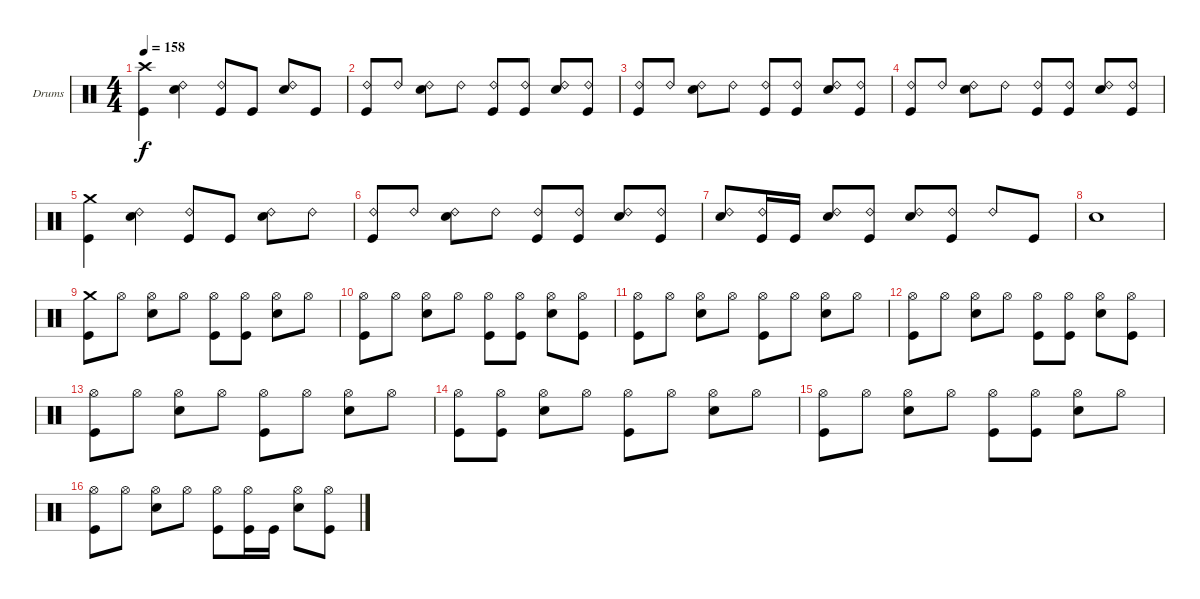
\bracketExtendMode groupsimilarinstruments
\firstSystemTrackNameOrientation horizontal
\otherSystemsTrackNameOrientation horizontal
\track ("Drumkit" "Drums") {instrument percussion}
\staff {score}
\articulation defaults
\ts (4 4)
\tempo 158
\clef neutral
\ks c
("Crash high (hit)" "Kick (hit)").4{dy f} ("Ride (bell) 2" "Snare (hit) 2").4 ("Ride (bell) 2" "Kick (hit)").8 "Kick (hit)".8 ("Ride (bell) 2" "Snare (hit) 2").8 "Kick (hit)".8 |
("Ride (bell) 2" "Kick (hit)").8 "Ride (bell) 2".8 ("Ride (bell) 2" "Snare (hit) 2").8 "Ride (bell) 2".8 ("Ride (bell) 2" "Kick (hit)").8 ("Ride (bell) 2" "Kick (hit)").8 ("Ride (bell) 2" "Snare (hit) 2").8 ("Ride (bell) 2" "Kick (hit)").8 |
("Ride (bell) 2" "Kick (hit)").8 "Ride (bell) 2".8 ("Ride (bell) 2" "Snare (hit) 2").8 "Ride (bell) 2".8 ("Ride (bell) 2" "Kick (hit)").8 ("Ride (bell) 2" "Kick (hit)").8 ("Ride (bell) 2" "Snare (hit) 2").8 ("Ride (bell) 2" "Kick (hit)").8 |
("Ride (bell) 2" "Kick (hit)").8 "Ride (bell) 2".8 ("Ride (bell) 2" "Snare (hit) 2").8 "Ride (bell) 2".8 ("Ride (bell) 2" "Kick (hit)").8 ("Ride (bell) 2" "Kick (hit)").8 ("Ride (bell) 2" "Snare (hit) 2").8 ("Ride (bell) 2" "Kick (hit)").8 |
("Crash medium (hit)" "Kick (hit)").4 ("Ride (bell) 2" "Snare (hit) 2").4 ("Ride (bell) 2" "Kick (hit)").8 "Kick (hit)".8 ("Ride (bell) 2" "Snare (hit) 2").8 "Ride (bell) 2".8 |
("Ride (bell) 2" "Kick (hit)").8 "Ride (bell) 2".8 ("Ride (bell) 2" "Snare (hit) 2").8 "Ride (bell) 2".8 ("Ride (bell) 2" "Kick (hit)").8 ("Ride (bell) 2" "Kick (hit)").8 ("Ride (bell) 2" "Snare (hit) 2").8 ("Ride (bell) 2" "Kick (hit)").8 |
("Ride (bell) 2" "Snare (hit) 2").8 ("Ride (bell) 2" "Kick (hit)").16 "Kick (hit)".16 ("Ride (bell) 2" "Snare (hit) 2").8 ("Ride (bell) 2" "Kick (hit)").8 ("Ride (bell) 2" "Snare (hit) 2").8 ("Ride (bell) 2" "Kick (hit)").8 "Ride (bell) 2".8 "Kick (hit)".8 |
"Snare (hit) 2".1 |
("Crash medium (hit)" "Kick (hit)").8 "Hi-Hat (open)".8 ("Hi-Hat (open)" "Snare (hit) 2").8 "Hi-Hat (open)".8 ("Hi-Hat (open)" "Kick (hit)").8 ("Hi-Hat (open)" "Kick (hit)").8 ("Hi-Hat (open)" "Snare (hit) 2").8 "Hi-Hat (open)".8 |
("Hi-Hat (open)" "Kick (hit)").8 "Hi-Hat (open)".8 ("Hi-Hat (open)" "Snare (hit) 2").8 "Hi-Hat (open)".8 ("Hi-Hat (open)" "Kick (hit)").8 ("Hi-Hat (open)" "Kick (hit)").8 ("Hi-Hat (open)" "Snare (hit) 2").8 ("Hi-Hat (open)" "Kick (hit)").8 |
("Hi-Hat (open)" "Kick (hit)").8 "Hi-Hat (open)".8 ("Hi-Hat (open)" "Snare (hit) 2").8 "Hi-Hat (open)".8 ("Hi-Hat (open)" "Kick (hit)").8 "Hi-Hat (open)".8 ("Hi-Hat (open)" "Snare (hit) 2").8 "Hi-Hat (open)".8 |
("Hi-Hat (open)" "Kick (hit)").8 "Hi-Hat (open)".8 ("Hi-Hat (open)" "Snare (hit) 2").8 "Hi-Hat (open)".8 ("Hi-Hat (open)" "Kick (hit)").8 ("Hi-Hat (open)" "Kick (hit)").8 ("Hi-Hat (open)" "Snare (hit) 2").8 ("Hi-Hat (open)" "Kick (hit)").8 |
("Hi-Hat (open)" "Kick (hit)").8 "Hi-Hat (open)".8 ("Hi-Hat (open)" "Snare (hit) 2").8 "Hi-Hat (open)".8 ("Hi-Hat (open)" "Kick (hit)").8 "Hi-Hat (open)".8 ("Hi-Hat (open)" "Snare (hit) 2").8 "Hi-Hat (open)".8 |
("Hi-Hat (open)" "Kick (hit)").8 ("Hi-Hat (open)" "Kick (hit)").8 ("Hi-Hat (open)" "Snare (hit) 2").8 "Hi-Hat (open)".8 ("Hi-Hat (open)" "Kick (hit)").8 "Hi-Hat (open)".8 ("Hi-Hat (open)" "Snare (hit) 2").8 "Hi-Hat (open)".8 |
("Hi-Hat (open)" "Kick (hit)").8 "Hi-Hat (open)".8 ("Hi-Hat (open)" "Snare (hit) 2").8 "Hi-Hat (open)".8 ("Hi-Hat (open)" "Kick (hit)").8 ("Hi-Hat (open)" "Kick (hit)").8 ("Hi-Hat (open)" "Snare (hit) 2").8 "Hi-Hat (open)".8 |
("Hi-Hat (open)" "Kick (hit)").8 "Hi-Hat (open)".8 ("Hi-Hat (open)" "Snare (hit) 2").8 "Hi-Hat (open)".8 ("Hi-Hat (open)" "Kick (hit)").8 ("Hi-Hat (open)" "Kick (hit)").16 "Kick (hit)".16 ("Hi-Hat (open)" "Snare (hit) 2").8 ("Hi-Hat (open)" "Kick (hit)").8
